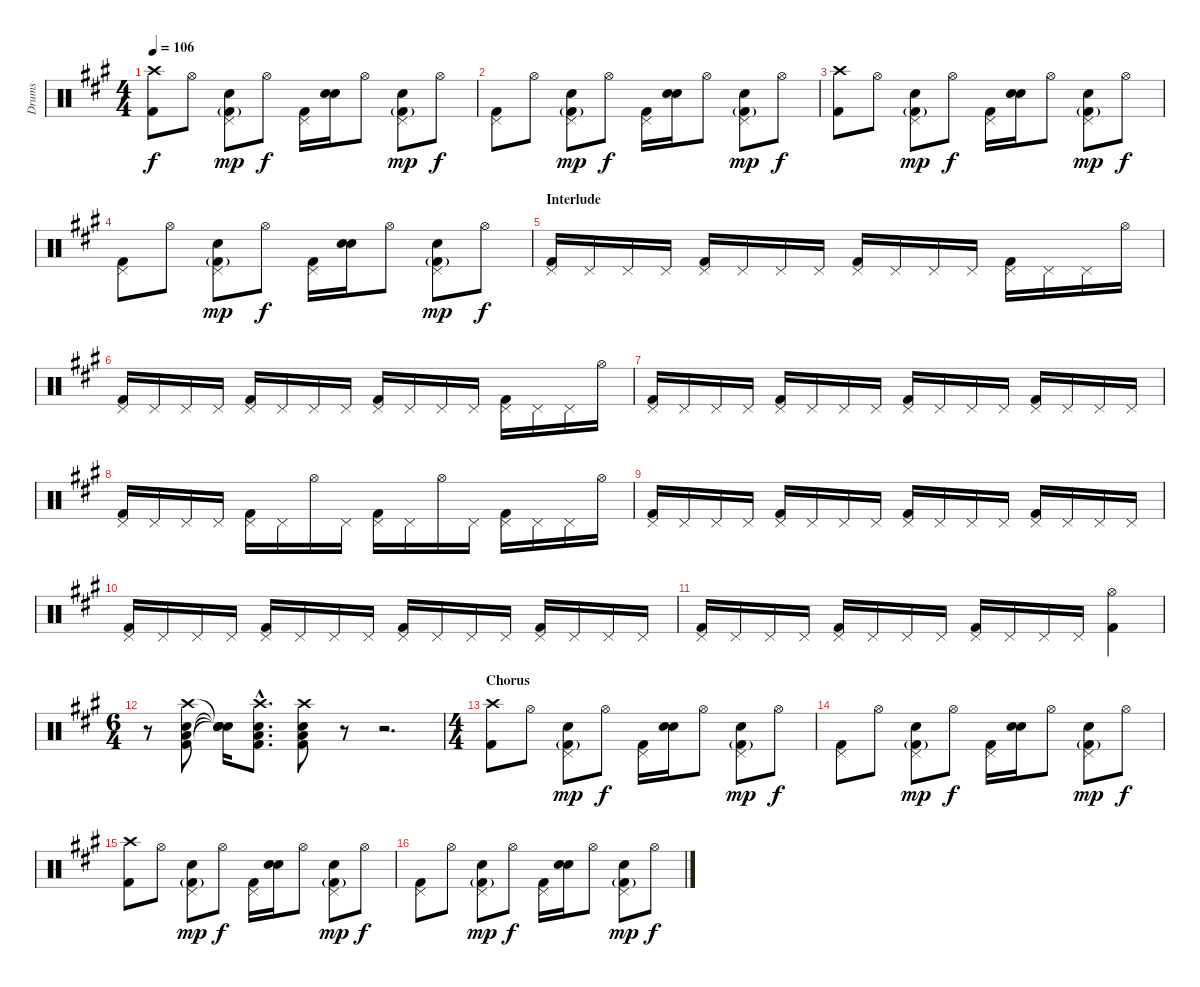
\track ("Drums" "Drums") {instrument percussion}
\staff {score}
\articulation defaults
\ts (4 4)
\tempo 106
\clef neutral
\ks a
("Crash high (hit)" "Kick (hit) 2").8{dy f} "Hi-Hat (open)".8 ("Pedal Hi-Hat (hit)" "Electric Snare (hit)" "Kick (hit) 2"{g}).8{dy mp} "Hi-Hat (open)".8{dy f} ("Pedal Hi-Hat (hit)" "Kick (hit) 2").16 ("Snare (hit)"{x} "Electric Snare (hit)").16 "Hi-Hat (open)".8 ("Pedal Hi-Hat (hit)" "Electric Snare (hit)" "Kick (hit) 2"{g}).8{dy mp} "Hi-Hat (open)".8{dy f} |
("Pedal Hi-Hat (hit)" "Kick (hit) 2").8 "Hi-Hat (open)".8 ("Pedal Hi-Hat (hit)" "Electric Snare (hit)" "Kick (hit) 2"{g}).8{dy mp} "Hi-Hat (open)".8{dy f} ("Pedal Hi-Hat (hit)" "Kick (hit) 2").16 ("Snare (hit)"{x} "Electric Snare (hit)").16 "Hi-Hat (open)".8 ("Pedal Hi-Hat (hit)" "Electric Snare (hit)" "Kick (hit) 2"{g}).8{dy mp} "Hi-Hat (open)".8{dy f} |
("Crash high (hit)" "Kick (hit) 2").8 "Hi-Hat (open)".8 ("Pedal Hi-Hat (hit)" "Electric Snare (hit)" "Kick (hit) 2"{g}).8{dy mp} "Hi-Hat (open)".8{dy f} ("Pedal Hi-Hat (hit)" "Kick (hit) 2").16 ("Snare (hit)"{x} "Electric Snare (hit)").16 "Hi-Hat (open)".8 ("Pedal Hi-Hat (hit)" "Electric Snare (hit)" "Kick (hit) 2"{g}).8{dy mp} "Hi-Hat (open)".8{dy f} |
("Pedal Hi-Hat (hit)" "Kick (hit) 2").8 "Hi-Hat (open)".8 ("Pedal Hi-Hat (hit)" "Electric Snare (hit)" "Kick (hit) 2"{g}).8{dy mp} "Hi-Hat (open)".8{dy f} ("Pedal Hi-Hat (hit)" "Kick (hit) 2").16 ("Snare (hit)"{x} "Electric Snare (hit)").16 "Hi-Hat (open)".8 ("Pedal Hi-Hat (hit)" "Electric Snare (hit)" "Kick (hit) 2"{g}).8{dy mp} "Hi-Hat (open)".8{dy f} |
\section ("" "Interlude")
("Pedal Hi-Hat (hit)" "Kick (hit) 2").16 "Pedal Hi-Hat (hit)".16 "Pedal Hi-Hat (hit)".16 "Pedal Hi-Hat (hit)".16 ("Pedal Hi-Hat (hit)" "Kick (hit) 2").16 "Pedal Hi-Hat (hit)".16 "Pedal Hi-Hat (hit)".16 "Pedal Hi-Hat (hit)".16 ("Pedal Hi-Hat (hit)" "Kick (hit) 2").16 "Pedal Hi-Hat (hit)".16 "Pedal Hi-Hat (hit)".16 "Pedal Hi-Hat (hit)".16 ("Pedal Hi-Hat (hit)" "Kick (hit) 2").16 "Pedal Hi-Hat (hit)".16 "Pedal Hi-Hat (hit)".16 "Hi-Hat (open)".16 |
("Pedal Hi-Hat (hit)" "Kick (hit) 2").16 "Pedal Hi-Hat (hit)".16 "Pedal Hi-Hat (hit)".16 "Pedal Hi-Hat (hit)".16 ("Pedal Hi-Hat (hit)" "Kick (hit) 2").16 "Pedal Hi-Hat (hit)".16 "Pedal Hi-Hat (hit)".16 "Pedal Hi-Hat (hit)".16 ("Pedal Hi-Hat (hit)" "Kick (hit) 2").16 "Pedal Hi-Hat (hit)".16 "Pedal Hi-Hat (hit)".16 "Pedal Hi-Hat (hit)".16 ("Pedal Hi-Hat (hit)" "Kick (hit) 2").16 "Pedal Hi-Hat (hit)".16 "Pedal Hi-Hat (hit)".16 "Hi-Hat (open)".16 |
("Pedal Hi-Hat (hit)" "Kick (hit) 2").16 "Pedal Hi-Hat (hit)".16 "Pedal Hi-Hat (hit)".16 "Pedal Hi-Hat (hit)".16 ("Pedal Hi-Hat (hit)" "Kick (hit) 2").16 "Pedal Hi-Hat (hit)".16 "Pedal Hi-Hat (hit)".16 "Pedal Hi-Hat (hit)".16 ("Pedal Hi-Hat (hit)" "Kick (hit) 2").16 "Pedal Hi-Hat (hit)".16 "Pedal Hi-Hat (hit)".16 "Pedal Hi-Hat (hit)".16 ("Pedal Hi-Hat (hit)" "Kick (hit) 2").16 "Pedal Hi-Hat (hit)".16 "Pedal Hi-Hat (hit)".16 "Pedal Hi-Hat (hit)".16 |
("Pedal Hi-Hat (hit)" "Kick (hit) 2").16 "Pedal Hi-Hat (hit)".16 "Pedal Hi-Hat (hit)".16 "Pedal Hi-Hat (hit)".16 ("Pedal Hi-Hat (hit)" "Kick (hit) 2").16 "Pedal Hi-Hat (hit)".16 "Hi-Hat (open)".16 "Pedal Hi-Hat (hit)".16 ("Pedal Hi-Hat (hit)" "Kick (hit) 2").16 "Pedal Hi-Hat (hit)".16 "Hi-Hat (open)".16 "Pedal Hi-Hat (hit)".16 ("Pedal Hi-Hat (hit)" "Kick (hit) 2").16 "Pedal Hi-Hat (hit)".16 "Pedal Hi-Hat (hit)".16 "Hi-Hat (open)".16 |
("Pedal Hi-Hat (hit)" "Kick (hit) 2").16 "Pedal Hi-Hat (hit)".16 "Pedal Hi-Hat (hit)".16 "Pedal Hi-Hat (hit)".16 ("Pedal Hi-Hat (hit)" "Kick (hit) 2").16 "Pedal Hi-Hat (hit)".16 "Pedal Hi-Hat (hit)".16 "Pedal Hi-Hat (hit)".16 ("Pedal Hi-Hat (hit)" "Kick (hit) 2").16 "Pedal Hi-Hat (hit)".16 "Pedal Hi-Hat (hit)".16 "Pedal Hi-Hat (hit)".16 ("Pedal Hi-Hat (hit)" "Kick (hit) 2").16 "Pedal Hi-Hat (hit)".16 "Pedal Hi-Hat (hit)".16 "Pedal Hi-Hat (hit)".16 |
("Pedal Hi-Hat (hit)" "Kick (hit) 2").16 "Pedal Hi-Hat (hit)".16 "Pedal Hi-Hat (hit)".16 "Pedal Hi-Hat (hit)".16 ("Pedal Hi-Hat (hit)" "Kick (hit) 2").16 "Pedal Hi-Hat (hit)".16 "Pedal Hi-Hat (hit)".16 "Pedal Hi-Hat (hit)".16 ("Pedal Hi-Hat (hit)" "Kick (hit) 2").16 "Pedal Hi-Hat (hit)".16 "Pedal Hi-Hat (hit)".16 "Pedal Hi-Hat (hit)".16 ("Pedal Hi-Hat (hit)" "Kick (hit) 2").16 "Pedal Hi-Hat (hit)".16 "Pedal Hi-Hat (hit)".16 "Pedal Hi-Hat (hit)".16 |
("Pedal Hi-Hat (hit)" "Kick (hit) 2").16 "Pedal Hi-Hat (hit)".16 "Pedal Hi-Hat (hit)".16 "Pedal Hi-Hat (hit)".16 ("Pedal Hi-Hat (hit)" "Kick (hit) 2").16 "Pedal Hi-Hat (hit)".16 "Pedal Hi-Hat (hit)".16 "Pedal Hi-Hat (hit)".16 ("Pedal Hi-Hat (hit)" "Kick (hit) 2").16 "Pedal Hi-Hat (hit)".16 "Pedal Hi-Hat (hit)".16 "Pedal Hi-Hat (hit)".16 ("Hi-Hat (open)" "Kick (hit) 2").4 |
\ts (6 4)
r.8 ("Crash high (hit)" "Low Floor Tom (hit)" "Electric Snare (hit)" "Kick (hit) 2").8{bd 240} ("Snare (hit)"{t} "Snare (hit)"{t} "Snare (hit)"{t} "Snare (hit)"{t}).16 ("Crash high (hit)"{hac} "Low Floor Tom (hit)"{hac} "Electric Snare (hit)"{hac} "Kick (hit) 2"{hac}).8{d bd 240} ("Crash high (hit)" "Low Floor Tom (hit)" "Electric Snare (hit)" "Kick (hit) 2").8{bd 240} r.8 r.2{d} |
\ts (4 4)
\section ("" "Chorus")
("Crash high (hit)" "Kick (hit) 2").8 "Hi-Hat (open)".8 ("Pedal Hi-Hat (hit)" "Electric Snare (hit)" "Kick (hit) 2"{g}).8{dy mp} "Hi-Hat (open)".8{dy f} ("Pedal Hi-Hat (hit)" "Kick (hit) 2").16 ("Snare (hit)"{x} "Electric Snare (hit)").16 "Hi-Hat (open)".8 ("Pedal Hi-Hat (hit)" "Electric Snare (hit)" "Kick (hit) 2"{g}).8{dy mp} "Hi-Hat (open)".8{dy f} |
("Pedal Hi-Hat (hit)" "Kick (hit) 2").8 "Hi-Hat (open)".8 ("Pedal Hi-Hat (hit)" "Electric Snare (hit)" "Kick (hit) 2"{g}).8{dy mp} "Hi-Hat (open)".8{dy f} ("Pedal Hi-Hat (hit)" "Kick (hit) 2").16 ("Snare (hit)"{x} "Electric Snare (hit)").16 "Hi-Hat (open)".8 ("Pedal Hi-Hat (hit)" "Electric Snare (hit)" "Kick (hit) 2"{g}).8{dy mp} "Hi-Hat (open)".8{dy f} |
("Crash high (hit)" "Kick (hit) 2").8 "Hi-Hat (open)".8 ("Pedal Hi-Hat (hit)" "Electric Snare (hit)" "Kick (hit) 2"{g}).8{dy mp} "Hi-Hat (open)".8{dy f} ("Pedal Hi-Hat (hit)" "Kick (hit) 2").16 ("Snare (hit)"{x} "Electric Snare (hit)").16 "Hi-Hat (open)".8 ("Pedal Hi-Hat (hit)" "Electric Snare (hit)" "Kick (hit) 2"{g}).8{dy mp} "Hi-Hat (open)".8{dy f} |
("Pedal Hi-Hat (hit)" "Kick (hit) 2").8 "Hi-Hat (open)".8 ("Pedal Hi-Hat (hit)" "Electric Snare (hit)" "Kick (hit) 2"{g}).8{dy mp} "Hi-Hat (open)".8{dy f} ("Pedal Hi-Hat (hit)" "Kick (hit) 2").16 ("Snare (hit)"{x} "Electric Snare (hit)").16 "Hi-Hat (open)".8 ("Pedal Hi-Hat (hit)" "Electric Snare (hit)" "Kick (hit) 2"{g}).8{dy mp} "Hi-Hat (open)".8{dy f}
